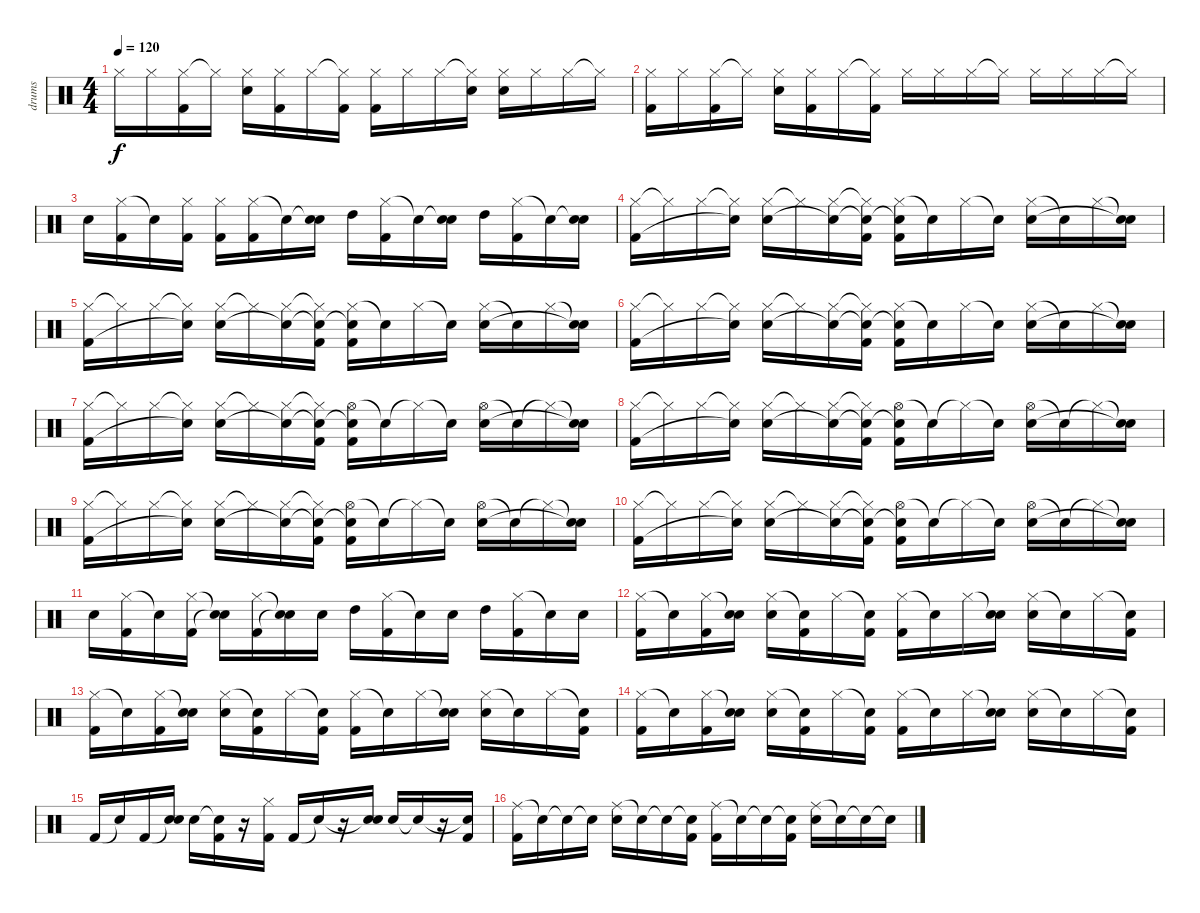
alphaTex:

\track ("drums" "drums") {instrument percussion}
\staff {score}
\articulation defaults
\ts (4 4)
\tempo 120
\clef neutral
\ks c "Hi-Hat (closed)".16{dy f} "Hi-Hat (closed)".16
("Hi-Hat (closed)" "Kick (hit) 2").16 "Hi-Hat (closed)"{t}.16 ("Hi-Hat (closed)" "Snare (hit) 2").16 ("Hi-Hat (closed)" "Kick (hit) 2").16 "Hi-Hat (closed)".16 ("Hi-Hat (closed)"{t} "Kick (hit) 2").16 ("Hi-Hat (closed)" "Kick (hit) 2").16 "Hi-Hat (closed)".16 "Hi-Hat (closed)".16 ("Hi-Hat (closed)"{t} "Snare (hit) 2").16 ("Hi-Hat (closed)" "Snare (hit) 2").16 "Hi-Hat (closed)".16 "Hi-Hat (closed)".16 "Hi-Hat (closed)"{t}.16 |
("Hi-Hat (closed)" "Kick (hit) 2").16 "Hi-Hat (closed)".16 ("Hi-Hat (closed)" "Kick (hit) 2").16 "Hi-Hat (closed)"{t}.16 ("Hi-Hat (closed)" "Snare (hit) 2").16 ("Hi-Hat (closed)" "Kick (hit) 2").16 "Hi-Hat (closed)".16 ("Hi-Hat (closed)"{t} "Kick (hit) 2").16 "Hi-Hat (closed)".16 "Hi-Hat (closed)".16 "Hi-Hat (closed)".16 "Hi-Hat (closed)"{t}.16 "Hi-Hat (closed)".16 "Hi-Hat (closed)".16 "Hi-Hat (closed)".16 "Hi-Hat (closed)"{t}.16 |
"Snare (hit) 2".16 ("Hi-Hat (closed)" "Kick (hit) 2").16 "Snare (hit)"{t}.16 ("Hi-Hat (closed)" "Kick (hit) 2").16 ("Hi-Hat (closed)" "Kick (hit) 2").16 ("Hi-Hat (closed)" "Kick (hit) 2").16 "Snare (hit)"{t}.16 ("Snare (hit)"{t} "Snare (hit) 2").16 "High Tom (hit)".16 ("Hi-Hat (closed)" "Kick (hit) 2").16 "Snare (hit)"{t}.16 ("Snare (hit)"{t} "Snare (hit) 2").16 "High Tom (hit)".16 ("Hi-Hat (closed)" "Kick (hit) 2").16 "Snare (hit)"{t}.16 ("Snare (hit)"{t} "Snare (hit) 2").16 |
("Hi-Hat (closed)" "Kick (hit) 2").16 "Hi-Hat (closed)"{t}.16 "Hi-Hat (closed)".16 ("Hi-Hat (closed)"{t} "Snare (hit)"{t}).16 ("Hi-Hat (closed)" "Snare (hit) 2").16 "Hi-Hat (closed)"{t}.16 ("Hi-Hat (closed)" "Snare (hit)"{t}).16 ("Hi-Hat (closed)"{t} "Snare (hit)"{t} "Kick (hit) 2").16 ("Hi-Hat (closed)" "Snare (hit)"{t} "Kick (hit) 2").16 "Snare (hit)"{t}.16 "Hi-Hat (closed)".16 "Snare (hit)"{t}.16 ("Hi-Hat (closed)" "Snare (hit) 2").16 "Snare (hit)"{t}.16 "Hi-Hat (closed)".16 ("Snare (hit)"{t} "Snare (hit)"{t}).16 |
("Hi-Hat (closed)" "Kick (hit) 2").16 "Hi-Hat (closed)"{t}.16 "Hi-Hat (closed)".16 ("Hi-Hat (closed)"{t} "Snare (hit)"{t}).16 ("Hi-Hat (closed)" "Snare (hit) 2").16 "Hi-Hat (closed)"{t}.16 ("Hi-Hat (closed)" "Snare (hit)"{t}).16 ("Hi-Hat (closed)"{t} "Snare (hit)"{t} "Kick (hit) 2").16 ("Hi-Hat (closed)" "Snare (hit)"{t} "Kick (hit) 2").16 "Snare (hit)"{t}.16 "Hi-Hat (closed)".16 "Snare (hit)"{t}.16 ("Hi-Hat (closed)" "Snare (hit) 2").16 "Snare (hit)"{t}.16 "Hi-Hat (closed)".16 ("Snare (hit)"{t} "Snare (hit)"{t}).16 |
("Hi-Hat (closed)" "Kick (hit) 2").16 "Hi-Hat (closed)"{t}.16 "Hi-Hat (closed)".16 ("Hi-Hat (closed)"{t} "Snare (hit)"{t}).16 ("Hi-Hat (closed)" "Snare (hit) 2").16 "Hi-Hat (closed)"{t}.16 ("Hi-Hat (closed)" "Snare (hit)"{t}).16 ("Hi-Hat (closed)"{t} "Snare (hit)"{t} "Kick (hit) 2").16 ("Hi-Hat (closed)" "Snare (hit)"{t} "Kick (hit) 2").16 "Snare (hit)"{t}.16 "Hi-Hat (closed)".16 "Snare (hit)"{t}.16 ("Hi-Hat (closed)" "Snare (hit) 2").16 "Snare (hit)"{t}.16 "Hi-Hat (closed)".16 ("Snare (hit)"{t} "Snare (hit)"{t}).16 |
("Hi-Hat (closed)" "Kick (hit) 2").16 "Hi-Hat (closed)"{t}.16 "Hi-Hat (closed)".16 ("Hi-Hat (closed)"{t} "Snare (hit)"{t}).16 ("Hi-Hat (closed)" "Snare (hit) 2").16 "Hi-Hat (closed)"{t}.16 ("Hi-Hat (closed)" "Snare (hit)"{t}).16 ("Hi-Hat (closed)"{t} "Snare (hit)"{t} "Kick (hit) 2").16 ("Hi-Hat (open)" "Snare (hit)"{t} "Kick (hit) 2").16 "Snare (hit)"{t}.16 "Hi-Hat (closed)"{t}.16 "Snare (hit)"{t}.16 ("Hi-Hat (open)" "Snare (hit) 2").16 "Snare (hit)"{t}.16 "Hi-Hat (closed)"{t}.16 ("Snare (hit)"{t} "Snare (hit)"{t}).16 |
("Hi-Hat (closed)" "Kick (hit) 2").16 "Hi-Hat (closed)"{t}.16 "Hi-Hat (closed)".16 ("Hi-Hat (closed)"{t} "Snare (hit)"{t}).16 ("Hi-Hat (closed)" "Snare (hit) 2").16 "Hi-Hat (closed)"{t}.16 ("Hi-Hat (closed)" "Snare (hit)"{t}).16 ("Hi-Hat (closed)"{t} "Snare (hit)"{t} "Kick (hit) 2").16 ("Hi-Hat (open)" "Snare (hit)"{t} "Kick (hit) 2").16 "Snare (hit)"{t}.16 "Hi-Hat (closed)"{t}.16 "Snare (hit)"{t}.16 ("Hi-Hat (open)" "Snare (hit) 2").16 "Snare (hit)"{t}.16 "Hi-Hat (closed)"{t}.16 ("Snare (hit)"{t} "Snare (hit)"{t}).16 |
("Hi-Hat (closed)" "Kick (hit) 2").16 "Hi-Hat (closed)"{t}.16 "Hi-Hat (closed)".16 ("Hi-Hat (closed)"{t} "Snare (hit)"{t}).16 ("Hi-Hat (closed)" "Snare (hit) 2").16 "Hi-Hat (closed)"{t}.16 ("Hi-Hat (closed)" "Snare (hit)"{t}).16 ("Hi-Hat (closed)"{t} "Snare (hit)"{t} "Kick (hit) 2").16 ("Hi-Hat (open)" "Snare (hit)"{t} "Kick (hit) 2").16 "Snare (hit)"{t}.16 "Hi-Hat (closed)"{t}.16 "Snare (hit)"{t}.16 ("Hi-Hat (open)" "Snare (hit) 2").16 "Snare (hit)"{t}.16 "Hi-Hat (closed)"{t}.16 ("Snare (hit)"{t} "Snare (hit)"{t}).16 |
("Hi-Hat (closed)" "Kick (hit) 2").16 "Hi-Hat (closed)"{t}.16 "Hi-Hat (closed)".16 ("Hi-Hat (closed)"{t} "Snare (hit)"{t}).16 ("Hi-Hat (closed)" "Snare (hit) 2").16 "Hi-Hat (closed)"{t}.16 ("Hi-Hat (closed)" "Snare (hit)"{t}).16 ("Hi-Hat (closed)"{t} "Snare (hit)"{t} "Kick (hit) 2").16 ("Hi-Hat (open)" "Snare (hit)"{t} "Kick (hit) 2").16 "Snare (hit)"{t}.16 "Hi-Hat (closed)"{t}.16 "Snare (hit)"{t}.16 ("Hi-Hat (open)" "Snare (hit) 2").16 "Snare (hit)"{t}.16 "Hi-Hat (closed)"{t}.16 ("Snare (hit)"{t} "Snare (hit)"{t}).16 |
"Snare (hit) 2".16 ("Hi-Hat (closed)" "Kick (hit) 2").16 "Snare (hit)"{t}.16 ("Hi-Hat (closed)" "Kick (hit) 2").16 ("Snare (hit)"{t} "Snare (hit)"{t}).16 ("Hi-Hat (closed)" "Kick (hit) 2").16 ("Snare (hit)"{t} "Snare (hit)"{t}).16 "Snare (hit) 2".16 "High Tom (hit)".16 ("Hi-Hat (closed)" "Kick (hit) 2").16 "Snare (hit)"{t}.16 "Snare (hit) 2".16 "High Tom (hit)".16 ("Hi-Hat (closed)" "Kick (hit) 2").16 "Snare (hit)"{t}.16 "Snare (hit) 2".16 |
("Hi-Hat (closed)" "Kick (hit) 2").16 "Snare (hit)"{t}.16 ("Hi-Hat (closed)" "Kick (hit) 2").16 ("Snare (hit)"{t} "Snare (hit) 2").16 ("Hi-Hat (closed)" "Snare (hit) 2").16 ("Snare (hit)"{t} "Kick (hit) 2").16 "Hi-Hat (closed)".16 ("Snare (hit)"{t} "Kick (hit) 2").16 ("Hi-Hat (closed)" "Kick (hit) 2").16 "Snare (hit)"{t}.16 "Hi-Hat (closed)".16 ("Snare (hit)"{t} "Snare (hit) 2").16 ("Hi-Hat (closed)" "Snare (hit) 2").16 "Snare (hit)"{t}.16 "Hi-Hat (closed)".16 ("Snare (hit)"{t} "Kick (hit) 2").16 |
("Hi-Hat (closed)" "Kick (hit) 2").16 "Snare (hit)"{t}.16 ("Hi-Hat (closed)" "Kick (hit) 2").16 ("Snare (hit)"{t} "Snare (hit) 2").16 ("Hi-Hat (closed)" "Snare (hit) 2").16 ("Snare (hit)"{t} "Kick (hit) 2").16 "Hi-Hat (closed)".16 ("Snare (hit)"{t} "Kick (hit) 2").16 ("Hi-Hat (closed)" "Kick (hit) 2").16 "Snare (hit)"{t}.16 "Hi-Hat (closed)".16 ("Snare (hit)"{t} "Snare (hit) 2").16 ("Hi-Hat (closed)" "Snare (hit) 2").16 "Snare (hit)"{t}.16 "Hi-Hat (closed)".16 ("Snare (hit)"{t} "Kick (hit) 2").16 |
("Hi-Hat (closed)" "Kick (hit) 2").16 "Snare (hit)"{t}.16 ("Hi-Hat (closed)" "Kick (hit) 2").16 ("Snare (hit)"{t} "Snare (hit) 2").16 ("Hi-Hat (closed)" "Snare (hit) 2").16 ("Snare (hit)"{t} "Kick (hit) 2").16 "Hi-Hat (closed)".16 ("Snare (hit)"{t} "Kick (hit) 2").16 ("Hi-Hat (closed)" "Kick (hit) 2").16 "Snare (hit)"{t}.16 "Hi-Hat (closed)".16 ("Snare (hit)"{t} "Snare (hit) 2").16 ("Hi-Hat (closed)" "Snare (hit) 2").16 "Snare (hit)"{t}.16 "Hi-Hat (closed)".16 ("Snare (hit)"{t} "Kick (hit) 2").16 |
"Kick (hit) 2".16 "Snare (hit)"{t}.16 "Kick (hit) 2".16 ("Snare (hit)"{t} "Snare (hit) 2").16 "Snare (hit) 2".16 ("Snare (hit)"{t} "Kick (hit) 2").16 r.16 ("Hi-Hat (closed)" "Kick (hit) 2").16 "Kick (hit) 2".16 "Snare (hit)"{t}.16 r.16 ("Snare (hit)"{t} "Snare (hit) 2").16 "Snare (hit) 2".16 "Snare (hit)"{t}.16 r.16 ("Snare (hit)"{t} "Kick (hit) 2").16 |
("Ride (middle)" "Kick (hit) 2").16 "Snare (hit)"{t}.16 "Snare (hit)"{t}.16 "Snare (hit)"{t}.16 ("Ride (middle)" "Snare (hit) 2").16 "Snare (hit)"{t}.16 "Snare (hit)"{t}.16 ("Snare (hit)"{t} "Kick (hit) 2").16 ("Ride (middle)" "Kick (hit) 2").16 "Snare (hit)"{t}.16 "Snare (hit)"{t}.16 ("Snare (hit)"{t} "Kick (hit) 2").16 ("Ride (middle)" "Snare (hit) 2").16 "Snare (hit)"{t}.16 "Snare (hit)"{t}.16 "Snare (hit)"{t}.16
